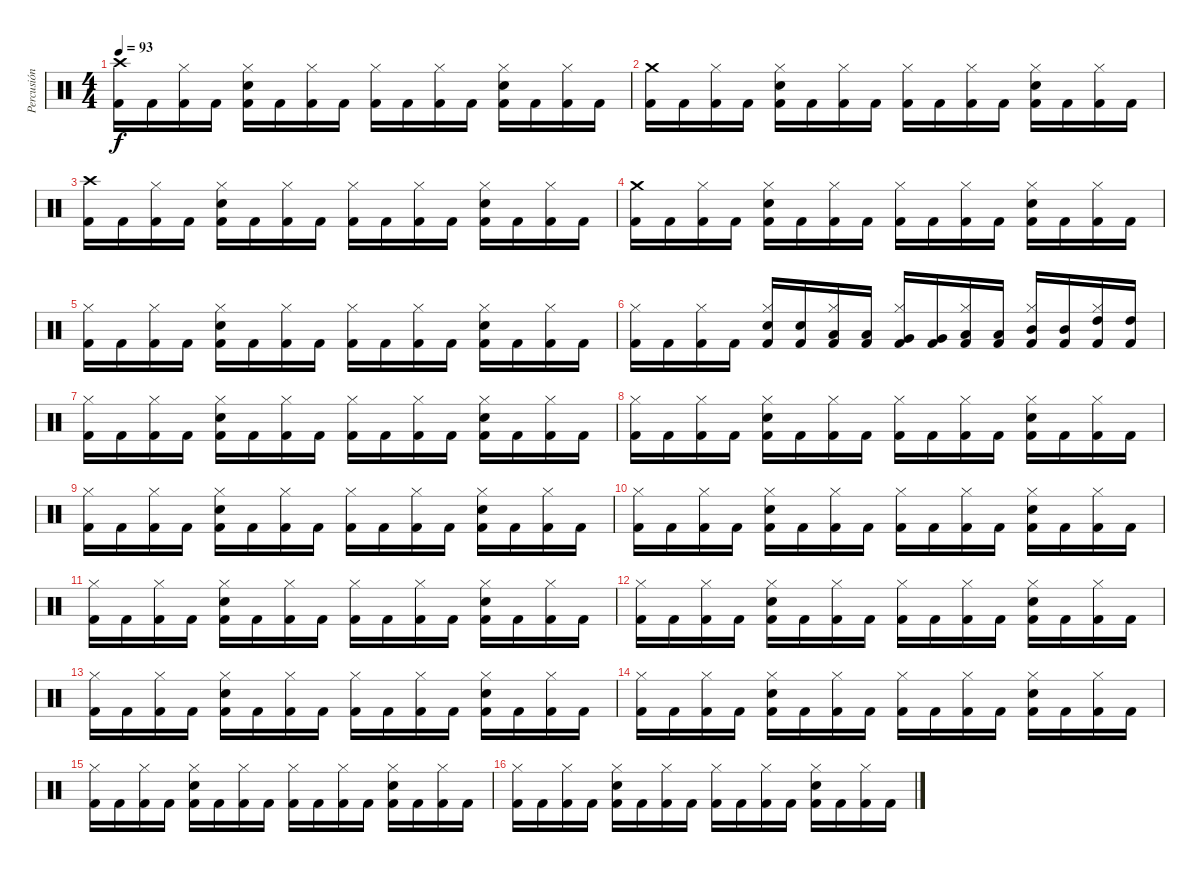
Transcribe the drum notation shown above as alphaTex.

\track ("Percusión" "Percusión") {instrument percussion}
\staff {score}
\articulation defaults
\ts (4 4)
\tempo 93
\clef neutral
\ks c
("Crash high (hit)" "Kick (hit) 2").16{dy f} "Kick (hit) 2".16 ("Hi-Hat (closed)" "Kick (hit) 2").16 "Kick (hit) 2".16 ("Hi-Hat (closed)" "Snare (hit) 2" "Kick (hit) 2").16 "Kick (hit) 2".16 ("Hi-Hat (closed)" "Kick (hit) 2").16 "Kick (hit) 2".16 ("Hi-Hat (closed)" "Kick (hit) 2").16 "Kick (hit) 2".16 ("Hi-Hat (closed)" "Kick (hit) 2").16 "Kick (hit) 2".16 ("Hi-Hat (closed)" "Snare (hit) 2" "Kick (hit) 2").16 "Kick (hit) 2".16 ("Hi-Hat (closed)" "Kick (hit) 2").16 "Kick (hit) 2".16 |
("Crash medium (hit)" "Kick (hit) 2").16 "Kick (hit) 2".16 ("Hi-Hat (closed)" "Kick (hit) 2").16 "Kick (hit) 2".16 ("Hi-Hat (closed)" "Snare (hit) 2" "Kick (hit) 2").16 "Kick (hit) 2".16 ("Hi-Hat (closed)" "Kick (hit) 2").16 "Kick (hit) 2".16 ("Hi-Hat (closed)" "Kick (hit) 2").16 "Kick (hit) 2".16 ("Hi-Hat (closed)" "Kick (hit) 2").16 "Kick (hit) 2".16 ("Hi-Hat (closed)" "Snare (hit) 2" "Kick (hit) 2").16 "Kick (hit) 2".16 ("Hi-Hat (closed)" "Kick (hit) 2").16 "Kick (hit) 2".16 |
("Crash high (hit)" "Kick (hit) 2").16 "Kick (hit) 2".16 ("Hi-Hat (closed)" "Kick (hit) 2").16 "Kick (hit) 2".16 ("Hi-Hat (closed)" "Snare (hit) 2" "Kick (hit) 2").16 "Kick (hit) 2".16 ("Hi-Hat (closed)" "Kick (hit) 2").16 "Kick (hit) 2".16 ("Hi-Hat (closed)" "Kick (hit) 2").16 "Kick (hit) 2".16 ("Hi-Hat (closed)" "Kick (hit) 2").16 "Kick (hit) 2".16 ("Hi-Hat (closed)" "Snare (hit) 2" "Kick (hit) 2").16 "Kick (hit) 2".16 ("Hi-Hat (closed)" "Kick (hit) 2").16 "Kick (hit) 2".16 |
("Crash medium (hit)" "Kick (hit) 2").16 "Kick (hit) 2".16 ("Hi-Hat (closed)" "Kick (hit) 2").16 "Kick (hit) 2".16 ("Hi-Hat (closed)" "Snare (hit) 2" "Kick (hit) 2").16 "Kick (hit) 2".16 ("Hi-Hat (closed)" "Kick (hit) 2").16 "Kick (hit) 2".16 ("Hi-Hat (closed)" "Kick (hit) 2").16 "Kick (hit) 2".16 ("Hi-Hat (closed)" "Kick (hit) 2").16 "Kick (hit) 2".16 ("Hi-Hat (closed)" "Snare (hit) 2" "Kick (hit) 2").16 "Kick (hit) 2".16 ("Hi-Hat (closed)" "Kick (hit) 2").16 "Kick (hit) 2".16 |
("Hi-Hat (closed)" "Kick (hit) 2").16 "Kick (hit) 2".16 ("Hi-Hat (closed)" "Kick (hit) 2").16 "Kick (hit) 2".16 ("Hi-Hat (closed)" "Snare (hit) 2" "Kick (hit) 2").16 "Kick (hit) 2".16 ("Hi-Hat (closed)" "Kick (hit) 2").16 "Kick (hit) 2".16 ("Hi-Hat (closed)" "Kick (hit) 2").16 "Kick (hit) 2".16 ("Hi-Hat (closed)" "Kick (hit) 2").16 "Kick (hit) 2".16 ("Hi-Hat (closed)" "Snare (hit) 2" "Kick (hit) 2").16 "Kick (hit) 2".16 ("Hi-Hat (closed)" "Kick (hit) 2").16 "Kick (hit) 2".16 |
("Hi-Hat (closed)" "Kick (hit) 2").16 "Kick (hit) 2".16 ("Hi-Hat (closed)" "Kick (hit) 2").16 "Kick (hit) 2".16 ("Hi-Hat (closed)" "Snare (hit) 2" "Kick (hit) 2").16 ("Electric Snare (hit)" "Kick (hit) 2").16 ("Hi-Hat (closed)" "Low Floor Tom (hit)" "Kick (hit) 2").16 ("Low Floor Tom (hit)" "Kick (hit) 2").16 ("Hi-Hat (closed)" "Very Low Tom (hit)" "Kick (hit) 2").16 ("Very Low Tom (hit)" "Kick (hit) 2").16 ("Hi-Hat (closed)" "Low Tom (hit)" "Kick (hit) 2").16 ("Low Tom (hit)" "Kick (hit) 2").16 ("Hi-Hat (closed)" "Mid Tom (hit)" "Kick (hit) 2").16 ("Mid Tom (hit)" "Kick (hit) 2").16 ("Hi-Hat (closed)" "High Tom (hit)" "Kick (hit) 2").16 ("High Tom (hit)" "Kick (hit) 2").16 |
("Hi-Hat (closed)" "Kick (hit) 2").16 "Kick (hit) 2".16 ("Hi-Hat (closed)" "Kick (hit) 2").16 "Kick (hit) 2".16 ("Hi-Hat (closed)" "Snare (hit) 2" "Kick (hit) 2").16 "Kick (hit) 2".16 ("Hi-Hat (closed)" "Kick (hit) 2").16 "Kick (hit) 2".16 ("Hi-Hat (closed)" "Kick (hit) 2").16 "Kick (hit) 2".16 ("Hi-Hat (closed)" "Kick (hit) 2").16 "Kick (hit) 2".16 ("Hi-Hat (closed)" "Snare (hit) 2" "Kick (hit) 2").16 "Kick (hit) 2".16 ("Hi-Hat (closed)" "Kick (hit) 2").16 "Kick (hit) 2".16 |
("Hi-Hat (closed)" "Kick (hit) 2").16 "Kick (hit) 2".16 ("Hi-Hat (closed)" "Kick (hit) 2").16 "Kick (hit) 2".16 ("Hi-Hat (closed)" "Snare (hit) 2" "Kick (hit) 2").16 "Kick (hit) 2".16 ("Hi-Hat (closed)" "Kick (hit) 2").16 "Kick (hit) 2".16 ("Hi-Hat (closed)" "Kick (hit) 2").16 "Kick (hit) 2".16 ("Hi-Hat (closed)" "Kick (hit) 2").16 "Kick (hit) 2".16 ("Hi-Hat (closed)" "Snare (hit) 2" "Kick (hit) 2").16 "Kick (hit) 2".16 ("Hi-Hat (closed)" "Kick (hit) 2").16 "Kick (hit) 2".16 |
("Hi-Hat (closed)" "Kick (hit) 2").16 "Kick (hit) 2".16 ("Hi-Hat (closed)" "Kick (hit) 2").16 "Kick (hit) 2".16 ("Hi-Hat (closed)" "Snare (hit) 2" "Kick (hit) 2").16 "Kick (hit) 2".16 ("Hi-Hat (closed)" "Kick (hit) 2").16 "Kick (hit) 2".16 ("Hi-Hat (closed)" "Kick (hit) 2").16 "Kick (hit) 2".16 ("Hi-Hat (closed)" "Kick (hit) 2").16 "Kick (hit) 2".16 ("Hi-Hat (closed)" "Snare (hit) 2" "Kick (hit) 2").16 "Kick (hit) 2".16 ("Hi-Hat (closed)" "Kick (hit) 2").16 "Kick (hit) 2".16 |
("Hi-Hat (closed)" "Kick (hit) 2").16 "Kick (hit) 2".16 ("Hi-Hat (closed)" "Kick (hit) 2").16 "Kick (hit) 2".16 ("Hi-Hat (closed)" "Snare (hit) 2" "Kick (hit) 2").16 "Kick (hit) 2".16 ("Hi-Hat (closed)" "Kick (hit) 2").16 "Kick (hit) 2".16 ("Hi-Hat (closed)" "Kick (hit) 2").16 "Kick (hit) 2".16 ("Hi-Hat (closed)" "Kick (hit) 2").16 "Kick (hit) 2".16 ("Hi-Hat (closed)" "Snare (hit) 2" "Kick (hit) 2").16 "Kick (hit) 2".16 ("Hi-Hat (closed)" "Kick (hit) 2").16 "Kick (hit) 2".16 |
("Hi-Hat (closed)" "Kick (hit) 2").16 "Kick (hit) 2".16 ("Hi-Hat (closed)" "Kick (hit) 2").16 "Kick (hit) 2".16 ("Hi-Hat (closed)" "Snare (hit) 2" "Kick (hit) 2").16 "Kick (hit) 2".16 ("Hi-Hat (closed)" "Kick (hit) 2").16 "Kick (hit) 2".16 ("Hi-Hat (closed)" "Kick (hit) 2").16 "Kick (hit) 2".16 ("Hi-Hat (closed)" "Kick (hit) 2").16 "Kick (hit) 2".16 ("Hi-Hat (closed)" "Snare (hit) 2" "Kick (hit) 2").16 "Kick (hit) 2".16 ("Hi-Hat (closed)" "Kick (hit) 2").16 "Kick (hit) 2".16 |
("Hi-Hat (closed)" "Kick (hit) 2").16 "Kick (hit) 2".16 ("Hi-Hat (closed)" "Kick (hit) 2").16 "Kick (hit) 2".16 ("Hi-Hat (closed)" "Snare (hit) 2" "Kick (hit) 2").16 "Kick (hit) 2".16 ("Hi-Hat (closed)" "Kick (hit) 2").16 "Kick (hit) 2".16 ("Hi-Hat (closed)" "Kick (hit) 2").16 "Kick (hit) 2".16 ("Hi-Hat (closed)" "Kick (hit) 2").16 "Kick (hit) 2".16 ("Hi-Hat (closed)" "Snare (hit) 2" "Kick (hit) 2").16 "Kick (hit) 2".16 ("Hi-Hat (closed)" "Kick (hit) 2").16 "Kick (hit) 2".16 |
("Hi-Hat (closed)" "Kick (hit) 2").16 "Kick (hit) 2".16 ("Hi-Hat (closed)" "Kick (hit) 2").16 "Kick (hit) 2".16 ("Hi-Hat (closed)" "Snare (hit) 2" "Kick (hit) 2").16 "Kick (hit) 2".16 ("Hi-Hat (closed)" "Kick (hit) 2").16 "Kick (hit) 2".16 ("Hi-Hat (closed)" "Kick (hit) 2").16 "Kick (hit) 2".16 ("Hi-Hat (closed)" "Kick (hit) 2").16 "Kick (hit) 2".16 ("Hi-Hat (closed)" "Snare (hit) 2" "Kick (hit) 2").16 "Kick (hit) 2".16 ("Hi-Hat (closed)" "Kick (hit) 2").16 "Kick (hit) 2".16 |
("Hi-Hat (closed)" "Kick (hit) 2").16 "Kick (hit) 2".16 ("Hi-Hat (closed)" "Kick (hit) 2").16 "Kick (hit) 2".16 ("Hi-Hat (closed)" "Snare (hit) 2" "Kick (hit) 2").16 "Kick (hit) 2".16 ("Hi-Hat (closed)" "Kick (hit) 2").16 "Kick (hit) 2".16 ("Hi-Hat (closed)" "Kick (hit) 2").16 "Kick (hit) 2".16 ("Hi-Hat (closed)" "Kick (hit) 2").16 "Kick (hit) 2".16 ("Hi-Hat (closed)" "Snare (hit) 2" "Kick (hit) 2").16 "Kick (hit) 2".16 ("Hi-Hat (closed)" "Kick (hit) 2").16 "Kick (hit) 2".16 |
("Hi-Hat (closed)" "Kick (hit) 2").16 "Kick (hit) 2".16 ("Hi-Hat (closed)" "Kick (hit) 2").16 "Kick (hit) 2".16 ("Hi-Hat (closed)" "Snare (hit) 2" "Kick (hit) 2").16 "Kick (hit) 2".16 ("Hi-Hat (closed)" "Kick (hit) 2").16 "Kick (hit) 2".16 ("Hi-Hat (closed)" "Kick (hit) 2").16 "Kick (hit) 2".16 ("Hi-Hat (closed)" "Kick (hit) 2").16 "Kick (hit) 2".16 ("Hi-Hat (closed)" "Snare (hit) 2" "Kick (hit) 2").16 "Kick (hit) 2".16 ("Hi-Hat (closed)" "Kick (hit) 2").16 "Kick (hit) 2".16 |
("Hi-Hat (closed)" "Kick (hit) 2").16 "Kick (hit) 2".16 ("Hi-Hat (closed)" "Kick (hit) 2").16 "Kick (hit) 2".16 ("Hi-Hat (closed)" "Snare (hit) 2" "Kick (hit) 2").16 "Kick (hit) 2".16 ("Hi-Hat (closed)" "Kick (hit) 2").16 "Kick (hit) 2".16 ("Hi-Hat (closed)" "Kick (hit) 2").16 "Kick (hit) 2".16 ("Hi-Hat (closed)" "Kick (hit) 2").16 "Kick (hit) 2".16 ("Hi-Hat (closed)" "Snare (hit) 2" "Kick (hit) 2").16 "Kick (hit) 2".16 ("Hi-Hat (closed)" "Kick (hit) 2").16 "Kick (hit) 2".16
